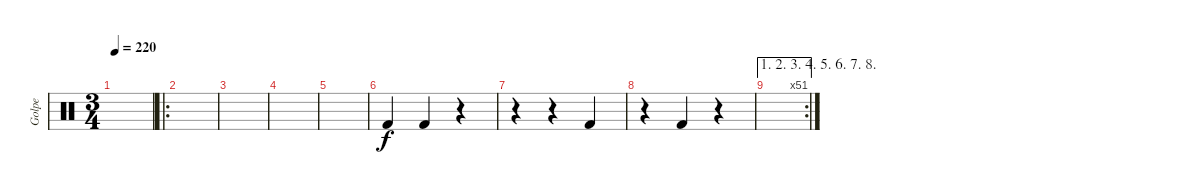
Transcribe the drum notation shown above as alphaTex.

\track ("Golpe" "Golpe") {instrument percussion}
\staff {score}
\articulation defaults
\ts (3 4)
\tempo 220
\clef neutral
\ks c
|
\ro
|
|
|
|
"Kick (hit) 2".4 "Kick (hit) 2".4 r.4 |
r.4 r.4 "Kick (hit) 2".4 |
r.4 "Kick (hit) 2".4 r.4 |
\ae (1 2 3 4 5 6 7 8)
\rc 51
